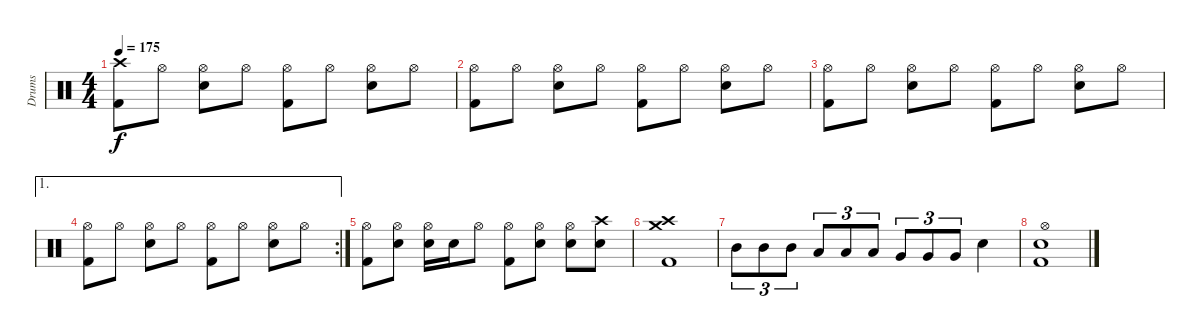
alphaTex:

\track ("Drums" "Drums") {instrument percussion}
\staff {score}
\articulation defaults
\ts (4 4)
\tempo 175
\clef neutral
\ks c
("Crash high (hit)" "Kick (hit) 2").8{dy f} "Hi-Hat (open)".8 ("Hi-Hat (open)" "Snare (hit) 2").8 "Hi-Hat (open)".8 ("Hi-Hat (open)" "Kick (hit) 2").8 "Hi-Hat (open)".8 ("Hi-Hat (open)" "Snare (hit) 2").8 "Hi-Hat (open)".8 |
("Hi-Hat (open)" "Kick (hit) 2").8 "Hi-Hat (open)".8 ("Hi-Hat (open)" "Snare (hit) 2").8 "Hi-Hat (open)".8 ("Hi-Hat (open)" "Kick (hit) 2").8 "Hi-Hat (open)".8 ("Hi-Hat (open)" "Snare (hit) 2").8 "Hi-Hat (open)".8 |
("Hi-Hat (open)" "Kick (hit) 2").8 "Hi-Hat (open)".8 ("Hi-Hat (open)" "Snare (hit) 2").8 "Hi-Hat (open)".8 ("Hi-Hat (open)" "Kick (hit) 2").8 "Hi-Hat (open)".8 ("Hi-Hat (open)" "Snare (hit) 2").8 "Hi-Hat (open)".8 |
\ae 1
\rc 2
("Hi-Hat (open)" "Kick (hit) 2").8 "Hi-Hat (open)".8 ("Hi-Hat (open)" "Snare (hit) 2").8 "Hi-Hat (open)".8 ("Hi-Hat (open)" "Kick (hit) 2").8 "Hi-Hat (open)".8 ("Hi-Hat (open)" "Snare (hit) 2").8 "Hi-Hat (open)".8 |
("Hi-Hat (open)" "Kick (hit) 2").8 ("Hi-Hat (open)" "Snare (hit) 2").8 ("Hi-Hat (open)" "Snare (hit) 2").16 "Snare (hit) 2".16 "Hi-Hat (open)".8 ("Hi-Hat (open)" "Kick (hit) 2").8 ("Hi-Hat (open)" "Snare (hit) 2").8 ("Hi-Hat (open)" "Snare (hit) 2").8 ("Crash high (hit)" "Snare (hit) 2").8 |
("Crash high (hit)" "Crash medium (hit)" "Kick (hit) 2").1 |
"Mid Tom (hit)".8{tu (3 2)} "Mid Tom (hit)".8{tu (3 2)} "Mid Tom (hit)".8{tu (3 2)} "Low Tom (hit)".8{tu (3 2)} "Low Tom (hit)".8{tu (3 2)} "Low Tom (hit)".8{tu (3 2)} "Very Low Tom (hit)".8{tu (3 2)} "Very Low Tom (hit)".8{tu (3 2)} "Very Low Tom (hit)".8{tu (3 2)} "Snare (hit) 2".4 |
("Hi-Hat (open)" "Snare (hit) 2" "Kick (hit) 2").1
